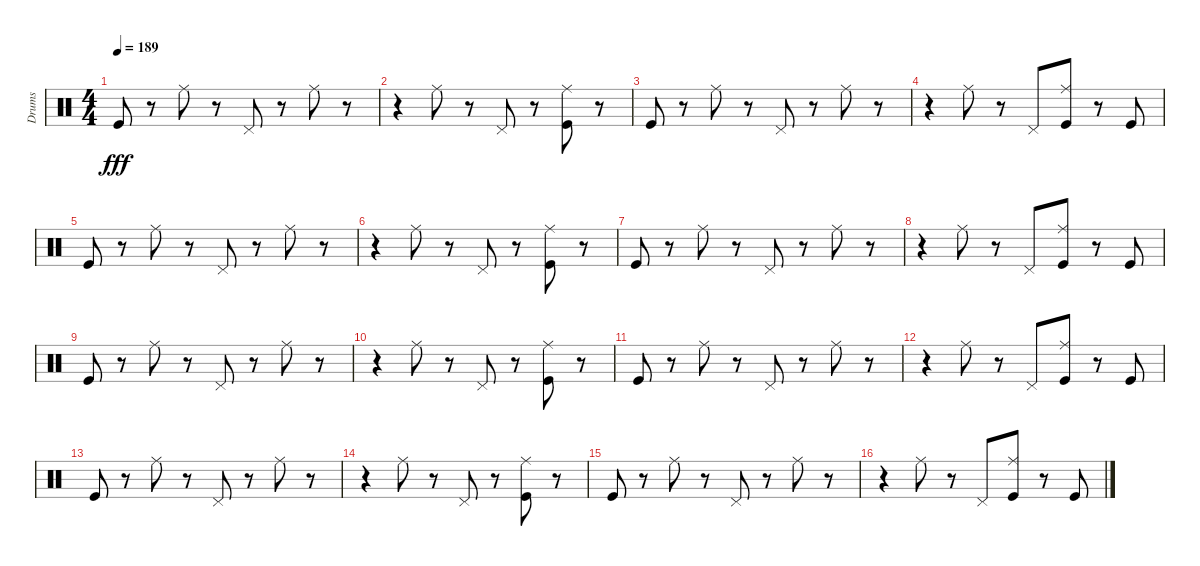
\track ("Drums" "Drums") {instrument percussion}
\staff {score}
\articulation defaults
\ts (4 4)
\tempo 189
\clef neutral
\ks c "Kick (hit)".8{dy fff}
r.8 "Ride (middle)".8 r.8 "Pedal Hi-Hat (hit)".8 r.8 "Ride (middle)".8 r.8 |
r.4 "Ride (middle)".8 r.8 "Pedal Hi-Hat (hit)".8 r.8 ("Kick (hit)" "Ride (middle)").8 r.8 |
"Kick (hit)".8 r.8 "Ride (middle)".8 r.8 "Pedal Hi-Hat (hit)".8 r.8 "Ride (middle)".8 r.8 |
r.4 "Ride (middle)".8 r.8 "Pedal Hi-Hat (hit)".8 ("Kick (hit)" "Ride (middle)").8 r.8 "Kick (hit)".8 |
"Kick (hit)".8 r.8 "Ride (middle)".8 r.8 "Pedal Hi-Hat (hit)".8 r.8 "Ride (middle)".8 r.8 |
r.4 "Ride (middle)".8 r.8 "Pedal Hi-Hat (hit)".8 r.8 ("Kick (hit)" "Ride (middle)").8 r.8 |
"Kick (hit)".8 r.8 "Ride (middle)".8 r.8 "Pedal Hi-Hat (hit)".8 r.8 "Ride (middle)".8 r.8 |
r.4 "Ride (middle)".8 r.8 "Pedal Hi-Hat (hit)".8 ("Kick (hit)" "Ride (middle)").8 r.8 "Kick (hit)".8 |
"Kick (hit)".8 r.8 "Ride (middle)".8 r.8 "Pedal Hi-Hat (hit)".8 r.8 "Ride (middle)".8 r.8 |
r.4 "Ride (middle)".8 r.8 "Pedal Hi-Hat (hit)".8 r.8 ("Kick (hit)" "Ride (middle)").8 r.8 |
"Kick (hit)".8 r.8 "Ride (middle)".8 r.8 "Pedal Hi-Hat (hit)".8 r.8 "Ride (middle)".8 r.8 |
r.4 "Ride (middle)".8 r.8 "Pedal Hi-Hat (hit)".8 ("Kick (hit)" "Ride (middle)").8 r.8 "Kick (hit)".8 |
"Kick (hit)".8 r.8 "Ride (middle)".8 r.8 "Pedal Hi-Hat (hit)".8 r.8 "Ride (middle)".8 r.8 |
r.4 "Ride (middle)".8 r.8 "Pedal Hi-Hat (hit)".8 r.8 ("Kick (hit)" "Ride (middle)").8 r.8 |
"Kick (hit)".8 r.8 "Ride (middle)".8 r.8 "Pedal Hi-Hat (hit)".8 r.8 "Ride (middle)".8 r.8 |
r.4 "Ride (middle)".8 r.8 "Pedal Hi-Hat (hit)".8 ("Kick (hit)" "Ride (middle)").8 r.8 "Kick (hit)".8
